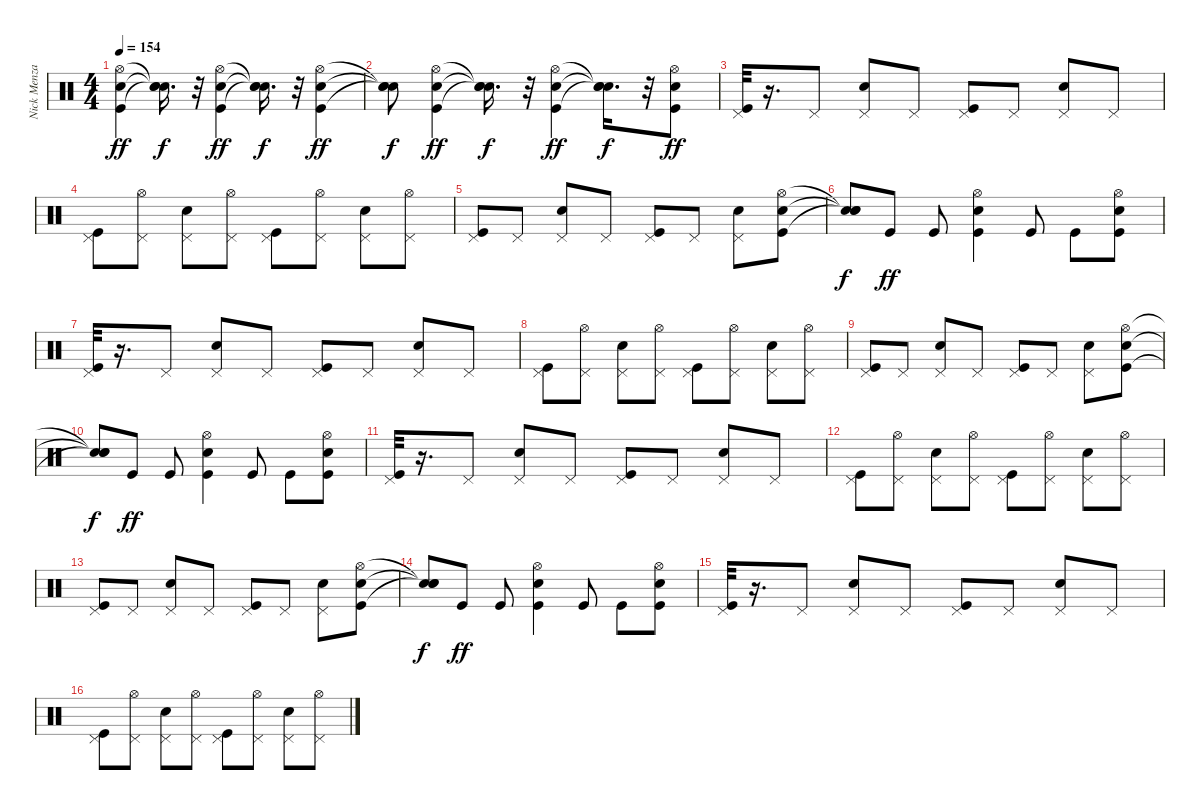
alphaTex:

\track ("Nick Menza" "Nick Menza") {instrument percussion}
\staff {score}
\articulation defaults
\ts (4 4)
\tempo 154
\clef neutral
\ks c
("Hi-Hat (open)" "Electric Snare (hit)" "Kick (hit)").4{dy ff} ("Snare (hit)"{t} "Snare (hit)"{t} "Snare (hit)"{t}).16{d dy f} r.32 ("Hi-Hat (open)" "Electric Snare (hit)" "Kick (hit)").4{dy ff} ("Snare (hit)"{t} "Snare (hit)"{t} "Snare (hit)"{t}).16{d dy f} r.32 ("Kick (hit)" "Electric Snare (hit)" "Hi-Hat (open)").4{dy ff} |
("Snare (hit)"{t} "Snare (hit)"{t} "Snare (hit)"{t}).8{dy f} ("Hi-Hat (open)" "Kick (hit)" "Electric Snare (hit)").4{dy ff} ("Snare (hit)"{t} "Snare (hit)"{t} "Snare (hit)"{t}).16{d dy f} r.32 ("Kick (hit)" "Electric Snare (hit)" "Hi-Hat (open)").4{dy ff} ("Snare (hit)"{t} "Snare (hit)"{t} "Snare (hit)"{t}).16{d dy f} r.32 ("Kick (hit)" "Electric Snare (hit)" "Hi-Hat (open)").8{dy ff} |
("Pedal Hi-Hat (hit)" "Kick (hit)").32 r.16{d} "Pedal Hi-Hat (hit)".8 ("Electric Snare (hit)" "Pedal Hi-Hat (hit)").8 "Pedal Hi-Hat (hit)".8 ("Kick (hit)" "Pedal Hi-Hat (hit)").8 "Pedal Hi-Hat (hit)".8 ("Electric Snare (hit)" "Pedal Hi-Hat (hit)").8 "Pedal Hi-Hat (hit)".8 |
("Pedal Hi-Hat (hit)" "Kick (hit)").8 ("Hi-Hat (open)" "Pedal Hi-Hat (hit)").8 ("Pedal Hi-Hat (hit)" "Electric Snare (hit)").8 ("Pedal Hi-Hat (hit)" "Hi-Hat (open)").8 ("Kick (hit)" "Pedal Hi-Hat (hit)").8 ("Pedal Hi-Hat (hit)" "Hi-Hat (open)").8 ("Electric Snare (hit)" "Pedal Hi-Hat (hit)").8 ("Pedal Hi-Hat (hit)" "Hi-Hat (open)").8 |
("Kick (hit)" "Pedal Hi-Hat (hit)").8 "Pedal Hi-Hat (hit)".8 ("Electric Snare (hit)" "Pedal Hi-Hat (hit)").8 "Pedal Hi-Hat (hit)".8 ("Pedal Hi-Hat (hit)" "Kick (hit)").8 "Pedal Hi-Hat (hit)".8 ("Pedal Hi-Hat (hit)" "Electric Snare (hit)").8 ("Kick (hit)" "Electric Snare (hit)" "Hi-Hat (open)").8 |
("Snare (hit)"{t} "Snare (hit)"{t} "Snare (hit)"{t}).8{dy f} "Kick (hit)".8{dy ff} "Kick (hit)".8 ("Kick (hit)" "Electric Snare (hit)" "Hi-Hat (open)").4 "Kick (hit)".8 "Kick (hit)".8 ("Kick (hit)" "Electric Snare (hit)" "Hi-Hat (open)").8 |
("Pedal Hi-Hat (hit)" "Kick (hit)").32 r.16{d} "Pedal Hi-Hat (hit)".8 ("Electric Snare (hit)" "Pedal Hi-Hat (hit)").8 "Pedal Hi-Hat (hit)".8 ("Kick (hit)" "Pedal Hi-Hat (hit)").8 "Pedal Hi-Hat (hit)".8 ("Electric Snare (hit)" "Pedal Hi-Hat (hit)").8 "Pedal Hi-Hat (hit)".8 |
("Pedal Hi-Hat (hit)" "Kick (hit)").8 ("Hi-Hat (open)" "Pedal Hi-Hat (hit)").8 ("Pedal Hi-Hat (hit)" "Electric Snare (hit)").8 ("Pedal Hi-Hat (hit)" "Hi-Hat (open)").8 ("Kick (hit)" "Pedal Hi-Hat (hit)").8 ("Pedal Hi-Hat (hit)" "Hi-Hat (open)").8 ("Electric Snare (hit)" "Pedal Hi-Hat (hit)").8 ("Pedal Hi-Hat (hit)" "Hi-Hat (open)").8 |
("Kick (hit)" "Pedal Hi-Hat (hit)").8 "Pedal Hi-Hat (hit)".8 ("Electric Snare (hit)" "Pedal Hi-Hat (hit)").8 "Pedal Hi-Hat (hit)".8 ("Pedal Hi-Hat (hit)" "Kick (hit)").8 "Pedal Hi-Hat (hit)".8 ("Pedal Hi-Hat (hit)" "Electric Snare (hit)").8 ("Kick (hit)" "Electric Snare (hit)" "Hi-Hat (open)").8 |
("Snare (hit)"{t} "Snare (hit)"{t} "Snare (hit)"{t}).8{dy f} "Kick (hit)".8{dy ff} "Kick (hit)".8 ("Kick (hit)" "Electric Snare (hit)" "Hi-Hat (open)").4 "Kick (hit)".8 "Kick (hit)".8 ("Kick (hit)" "Electric Snare (hit)" "Hi-Hat (open)").8 |
("Pedal Hi-Hat (hit)" "Kick (hit)").32 r.16{d} "Pedal Hi-Hat (hit)".8 ("Electric Snare (hit)" "Pedal Hi-Hat (hit)").8 "Pedal Hi-Hat (hit)".8 ("Kick (hit)" "Pedal Hi-Hat (hit)").8 "Pedal Hi-Hat (hit)".8 ("Electric Snare (hit)" "Pedal Hi-Hat (hit)").8 "Pedal Hi-Hat (hit)".8 |
("Pedal Hi-Hat (hit)" "Kick (hit)").8 ("Hi-Hat (open)" "Pedal Hi-Hat (hit)").8 ("Pedal Hi-Hat (hit)" "Electric Snare (hit)").8 ("Pedal Hi-Hat (hit)" "Hi-Hat (open)").8 ("Kick (hit)" "Pedal Hi-Hat (hit)").8 ("Pedal Hi-Hat (hit)" "Hi-Hat (open)").8 ("Electric Snare (hit)" "Pedal Hi-Hat (hit)").8 ("Pedal Hi-Hat (hit)" "Hi-Hat (open)").8 |
("Kick (hit)" "Pedal Hi-Hat (hit)").8 "Pedal Hi-Hat (hit)".8 ("Electric Snare (hit)" "Pedal Hi-Hat (hit)").8 "Pedal Hi-Hat (hit)".8 ("Pedal Hi-Hat (hit)" "Kick (hit)").8 "Pedal Hi-Hat (hit)".8 ("Pedal Hi-Hat (hit)" "Electric Snare (hit)").8 ("Kick (hit)" "Electric Snare (hit)" "Hi-Hat (open)").8 |
("Snare (hit)"{t} "Snare (hit)"{t} "Snare (hit)"{t}).8{dy f} "Kick (hit)".8{dy ff} "Kick (hit)".8 ("Kick (hit)" "Electric Snare (hit)" "Hi-Hat (open)").4 "Kick (hit)".8 "Kick (hit)".8 ("Kick (hit)" "Electric Snare (hit)" "Hi-Hat (open)").8 |
("Pedal Hi-Hat (hit)" "Kick (hit)").32 r.16{d} "Pedal Hi-Hat (hit)".8 ("Electric Snare (hit)" "Pedal Hi-Hat (hit)").8 "Pedal Hi-Hat (hit)".8 ("Kick (hit)" "Pedal Hi-Hat (hit)").8 "Pedal Hi-Hat (hit)".8 ("Electric Snare (hit)" "Pedal Hi-Hat (hit)").8 "Pedal Hi-Hat (hit)".8 |
("Pedal Hi-Hat (hit)" "Kick (hit)").8 ("Hi-Hat (open)" "Pedal Hi-Hat (hit)").8 ("Pedal Hi-Hat (hit)" "Electric Snare (hit)").8 ("Pedal Hi-Hat (hit)" "Hi-Hat (open)").8 ("Kick (hit)" "Pedal Hi-Hat (hit)").8 ("Pedal Hi-Hat (hit)" "Hi-Hat (open)").8 ("Electric Snare (hit)" "Pedal Hi-Hat (hit)").8 ("Pedal Hi-Hat (hit)" "Hi-Hat (open)").8
